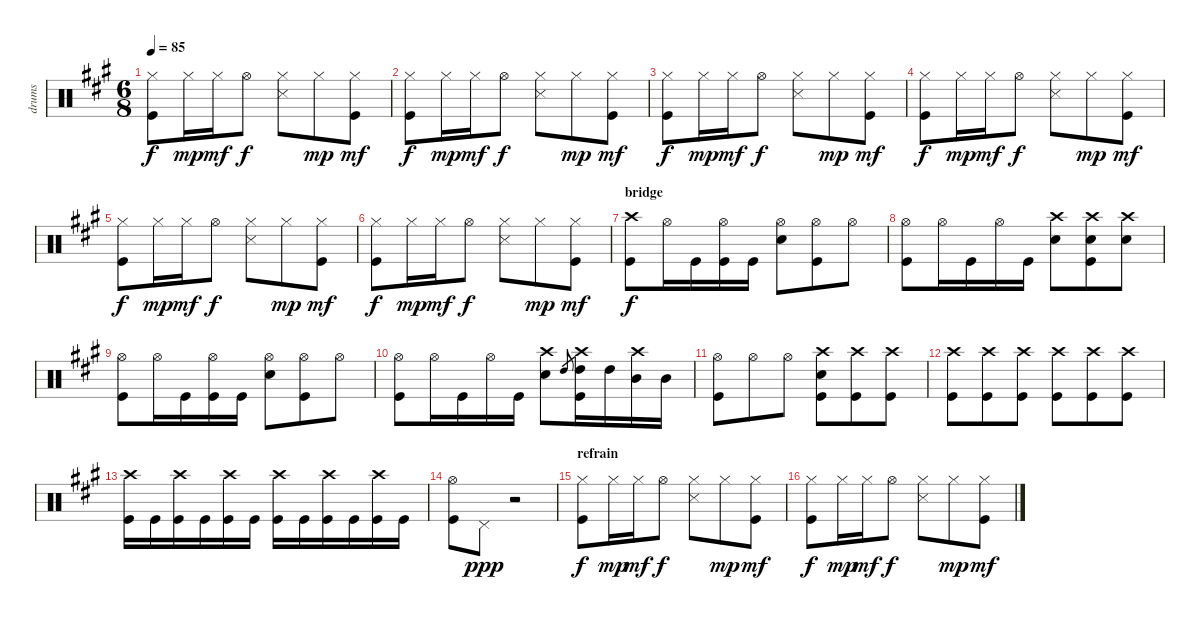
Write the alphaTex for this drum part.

\track ("drums" "drums") {instrument percussion}
\staff {score}
\articulation defaults
\ts (6 8)
\tempo 85
\clef neutral
\ks f#minor
("Hi-Hat (closed)" "Kick (hit)").8{dy f} "Hi-Hat (closed)".16{dy mp} "Hi-Hat (closed)".16{dy mf} "Hi-Hat (open)".8{dy f} ("Hi-Hat (closed)" "Snare (side stick) 3").8 "Hi-Hat (closed)".8{dy mp} ("Hi-Hat (closed)" "Kick (hit)").8{dy mf} |
("Hi-Hat (closed)" "Kick (hit)").8{dy f} "Hi-Hat (closed)".16{dy mp} "Hi-Hat (closed)".16{dy mf} "Hi-Hat (open)".8{dy f} ("Hi-Hat (closed)" "Snare (side stick) 3").8 "Hi-Hat (closed)".8{dy mp} ("Hi-Hat (closed)" "Kick (hit)").8{dy mf} |
("Hi-Hat (closed)" "Kick (hit)").8{dy f} "Hi-Hat (closed)".16{dy mp} "Hi-Hat (closed)".16{dy mf} "Hi-Hat (open)".8{dy f} ("Hi-Hat (closed)" "Snare (side stick) 3").8 "Hi-Hat (closed)".8{dy mp} ("Hi-Hat (closed)" "Kick (hit)").8{dy mf} |
("Hi-Hat (closed)" "Kick (hit)").8{dy f} "Hi-Hat (closed)".16{dy mp} "Hi-Hat (closed)".16{dy mf} "Hi-Hat (open)".8{dy f} ("Hi-Hat (closed)" "Snare (side stick) 3").8 "Hi-Hat (closed)".8{dy mp} ("Hi-Hat (closed)" "Kick (hit)").8{dy mf} |
("Hi-Hat (closed)" "Kick (hit)").8{dy f} "Hi-Hat (closed)".16{dy mp} "Hi-Hat (closed)".16{dy mf} "Hi-Hat (open)".8{dy f} ("Hi-Hat (closed)" "Snare (side stick) 3").8 "Hi-Hat (closed)".8{dy mp} ("Hi-Hat (closed)" "Kick (hit)").8{dy mf} |
("Hi-Hat (closed)" "Kick (hit)").8{dy f} "Hi-Hat (closed)".16{dy mp} "Hi-Hat (closed)".16{dy mf} "Hi-Hat (open)".8{dy f} ("Hi-Hat (closed)" "Snare (side stick) 3").8 "Hi-Hat (closed)".8{dy mp} ("Hi-Hat (closed)" "Kick (hit)").8{dy mf} |
\section ("" "bridge")
("Crash high (hit)" "Kick (hit)").8{dy f} "Hi-Hat (open)".16 "Kick (hit)".16 ("Hi-Hat (open)" "Kick (hit)").16 "Kick (hit)".16 ("Hi-Hat (open)" "Electric Snare (hit)").8 ("Hi-Hat (open)" "Kick (hit)").8 "Hi-Hat (open)".8 |
("Hi-Hat (open)" "Kick (hit)").8 "Hi-Hat (open)".16 "Kick (hit)".16 "Hi-Hat (open)".16 "Kick (hit)".16 ("Crash high (hit)" "Electric Snare (hit)").8 ("Crash high (hit)" "Electric Snare (hit)" "Kick (hit)").8 ("Crash high (hit)" "Electric Snare (hit)").8 |
("Hi-Hat (open)" "Kick (hit)").8 "Hi-Hat (open)".16 "Kick (hit)".16 ("Hi-Hat (open)" "Kick (hit)").16 "Kick (hit)".16 ("Hi-Hat (open)" "Electric Snare (hit)").8 ("Hi-Hat (open)" "Kick (hit)").8 "Hi-Hat (open)".8 |
("Hi-Hat (open)" "Kick (hit)").8 "Hi-Hat (open)".16 "Kick (hit)".16 "Hi-Hat (open)".16 "Kick (hit)".16 ("Crash high (hit)" "Electric Snare (hit)").8 "High Tom (hit)".8{gr} ("Crash high (hit)" "High Tom (hit)" "Kick (hit)").16 "High Tom (hit)".16 ("Crash high (hit)" "Mid Tom (hit)").16 "Mid Tom (hit)".16 |
("Hi-Hat (open)" "Kick (hit)").8 "Hi-Hat (open)".8 "Hi-Hat (open)".8 ("Crash high (hit)" "Electric Snare (hit)" "Kick (hit)").8 ("Crash high (hit)" "Kick (hit)").8 ("Crash high (hit)" "Kick (hit)").8 |
("Crash high (hit)" "Kick (hit)").8 ("Crash high (hit)" "Kick (hit)").8 ("Crash high (hit)" "Kick (hit)").8 ("Crash high (hit)" "Kick (hit)").8 ("Crash high (hit)" "Kick (hit)").8 ("Crash high (hit)" "Kick (hit)").8 |
("Crash high (hit)" "Kick (hit)").16 "Kick (hit)".16 ("Crash high (hit)" "Kick (hit)").16 "Kick (hit)".16 ("Crash high (hit)" "Kick (hit)").16 "Kick (hit)".16 ("Crash high (hit)" "Kick (hit)").16 "Kick (hit)".16 ("Crash high (hit)" "Kick (hit)").16 "Kick (hit)".16 ("Crash high (hit)" "Kick (hit)").16 "Kick (hit)".16 |
("Hi-Hat (open)" "Kick (hit)").8 "Pedal Hi-Hat (hit)".8{dy ppp} r.2 |
\section ("" "refrain")
("Hi-Hat (closed)" "Kick (hit)").8{dy f} "Hi-Hat (closed)".16{dy mp} "Hi-Hat (closed)".16{dy mf} "Hi-Hat (open)".8{dy f} ("Hi-Hat (closed)" "Snare (side stick) 3").8 "Hi-Hat (closed)".8{dy mp} ("Hi-Hat (closed)" "Kick (hit)").8{dy mf} |
("Hi-Hat (closed)" "Kick (hit)").8{dy f} "Hi-Hat (closed)".16{dy mp} "Hi-Hat (closed)".16{dy mf} "Hi-Hat (open)".8{dy f} ("Hi-Hat (closed)" "Snare (side stick) 3").8 "Hi-Hat (closed)".8{dy mp} ("Hi-Hat (closed)" "Kick (hit)").8{dy mf}
